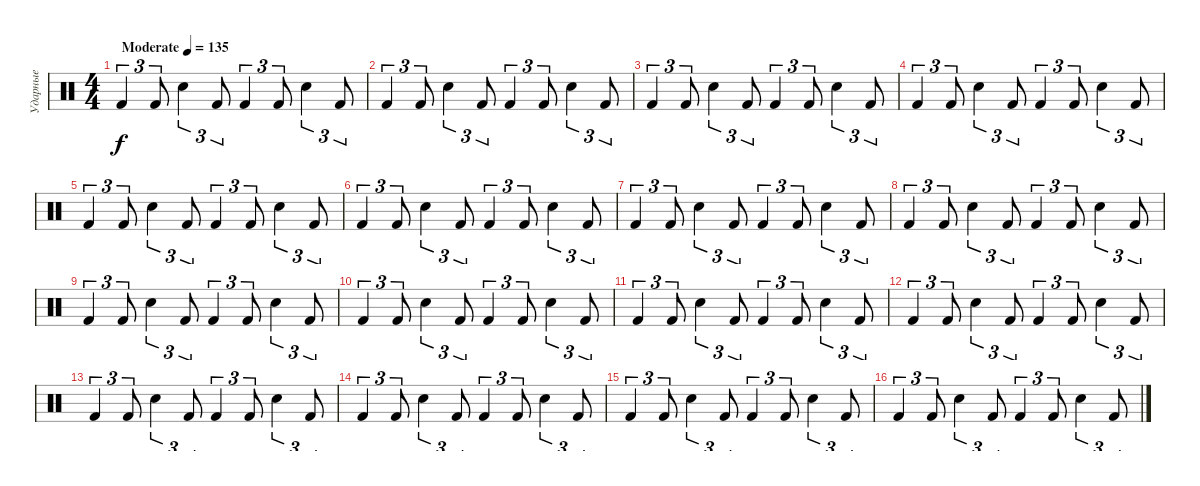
\track ("Ударные" "Ударные") {instrument percussion}
\staff {score}
\articulation defaults
\ts (4 4)
\tempo (135 "Moderate")
\clef neutral
\ks c "Kick (hit) 2".4{tu (3 2) dy f} "Kick (hit) 2".8{tu (3 2)} "Electric Snare (hit)".4{tu (3 2)} "Kick (hit) 2".8{tu (3 2)} "Kick (hit) 2".4{tu (3 2)} "Kick (hit) 2".8{tu (3 2)} "Electric Snare (hit)".4{tu (3 2)} "Kick (hit) 2".8{tu (3 2)}
|
"Kick (hit) 2".4{tu (3 2)} "Kick (hit) 2".8{tu (3 2)} "Electric Snare (hit)".4{tu (3 2)} "Kick (hit) 2".8{tu (3 2)} "Kick (hit) 2".4{tu (3 2)} "Kick (hit) 2".8{tu (3 2)} "Electric Snare (hit)".4{tu (3 2)} "Kick (hit) 2".8{tu (3 2)} |
"Kick (hit) 2".4{tu (3 2)} "Kick (hit) 2".8{tu (3 2)} "Electric Snare (hit)".4{tu (3 2)} "Kick (hit) 2".8{tu (3 2)} "Kick (hit) 2".4{tu (3 2)} "Kick (hit) 2".8{tu (3 2)} "Electric Snare (hit)".4{tu (3 2)} "Kick (hit) 2".8{tu (3 2)} |
"Kick (hit) 2".4{tu (3 2)} "Kick (hit) 2".8{tu (3 2)} "Electric Snare (hit)".4{tu (3 2)} "Kick (hit) 2".8{tu (3 2)} "Kick (hit) 2".4{tu (3 2)} "Kick (hit) 2".8{tu (3 2)} "Electric Snare (hit)".4{tu (3 2)} "Kick (hit) 2".8{tu (3 2)} |
"Kick (hit) 2".4{tu (3 2)} "Kick (hit) 2".8{tu (3 2)} "Electric Snare (hit)".4{tu (3 2)} "Kick (hit) 2".8{tu (3 2)} "Kick (hit) 2".4{tu (3 2)} "Kick (hit) 2".8{tu (3 2)} "Electric Snare (hit)".4{tu (3 2)} "Kick (hit) 2".8{tu (3 2)} |
"Kick (hit) 2".4{tu (3 2)} "Kick (hit) 2".8{tu (3 2)} "Electric Snare (hit)".4{tu (3 2)} "Kick (hit) 2".8{tu (3 2)} "Kick (hit) 2".4{tu (3 2)} "Kick (hit) 2".8{tu (3 2)} "Electric Snare (hit)".4{tu (3 2)} "Kick (hit) 2".8{tu (3 2)} |
"Kick (hit) 2".4{tu (3 2)} "Kick (hit) 2".8{tu (3 2)} "Electric Snare (hit)".4{tu (3 2)} "Kick (hit) 2".8{tu (3 2)} "Kick (hit) 2".4{tu (3 2)} "Kick (hit) 2".8{tu (3 2)} "Electric Snare (hit)".4{tu (3 2)} "Kick (hit) 2".8{tu (3 2)} |
"Kick (hit) 2".4{tu (3 2)} "Kick (hit) 2".8{tu (3 2)} "Electric Snare (hit)".4{tu (3 2)} "Kick (hit) 2".8{tu (3 2)} "Kick (hit) 2".4{tu (3 2)} "Kick (hit) 2".8{tu (3 2)} "Electric Snare (hit)".4{tu (3 2)} "Kick (hit) 2".8{tu (3 2)} |
"Kick (hit) 2".4{tu (3 2)} "Kick (hit) 2".8{tu (3 2)} "Electric Snare (hit)".4{tu (3 2)} "Kick (hit) 2".8{tu (3 2)} "Kick (hit) 2".4{tu (3 2)} "Kick (hit) 2".8{tu (3 2)} "Electric Snare (hit)".4{tu (3 2)} "Kick (hit) 2".8{tu (3 2)} |
"Kick (hit) 2".4{tu (3 2)} "Kick (hit) 2".8{tu (3 2)} "Electric Snare (hit)".4{tu (3 2)} "Kick (hit) 2".8{tu (3 2)} "Kick (hit) 2".4{tu (3 2)} "Kick (hit) 2".8{tu (3 2)} "Electric Snare (hit)".4{tu (3 2)} "Kick (hit) 2".8{tu (3 2)} |
"Kick (hit) 2".4{tu (3 2)} "Kick (hit) 2".8{tu (3 2)} "Electric Snare (hit)".4{tu (3 2)} "Kick (hit) 2".8{tu (3 2)} "Kick (hit) 2".4{tu (3 2)} "Kick (hit) 2".8{tu (3 2)} "Electric Snare (hit)".4{tu (3 2)} "Kick (hit) 2".8{tu (3 2)} |
"Kick (hit) 2".4{tu (3 2)} "Kick (hit) 2".8{tu (3 2)} "Electric Snare (hit)".4{tu (3 2)} "Kick (hit) 2".8{tu (3 2)} "Kick (hit) 2".4{tu (3 2)} "Kick (hit) 2".8{tu (3 2)} "Electric Snare (hit)".4{tu (3 2)} "Kick (hit) 2".8{tu (3 2)} |
"Kick (hit) 2".4{tu (3 2)} "Kick (hit) 2".8{tu (3 2)} "Electric Snare (hit)".4{tu (3 2)} "Kick (hit) 2".8{tu (3 2)} "Kick (hit) 2".4{tu (3 2)} "Kick (hit) 2".8{tu (3 2)} "Electric Snare (hit)".4{tu (3 2)} "Kick (hit) 2".8{tu (3 2)} |
"Kick (hit) 2".4{tu (3 2)} "Kick (hit) 2".8{tu (3 2)} "Electric Snare (hit)".4{tu (3 2)} "Kick (hit) 2".8{tu (3 2)} "Kick (hit) 2".4{tu (3 2)} "Kick (hit) 2".8{tu (3 2)} "Electric Snare (hit)".4{tu (3 2)} "Kick (hit) 2".8{tu (3 2)} |
"Kick (hit) 2".4{tu (3 2)} "Kick (hit) 2".8{tu (3 2)} "Electric Snare (hit)".4{tu (3 2)} "Kick (hit) 2".8{tu (3 2)} "Kick (hit) 2".4{tu (3 2)} "Kick (hit) 2".8{tu (3 2)} "Electric Snare (hit)".4{tu (3 2)} "Kick (hit) 2".8{tu (3 2)} |
"Kick (hit) 2".4{tu (3 2)} "Kick (hit) 2".8{tu (3 2)} "Electric Snare (hit)".4{tu (3 2)} "Kick (hit) 2".8{tu (3 2)} "Kick (hit) 2".4{tu (3 2)} "Kick (hit) 2".8{tu (3 2)} "Electric Snare (hit)".4{tu (3 2)} "Kick (hit) 2".8{tu (3 2)}
